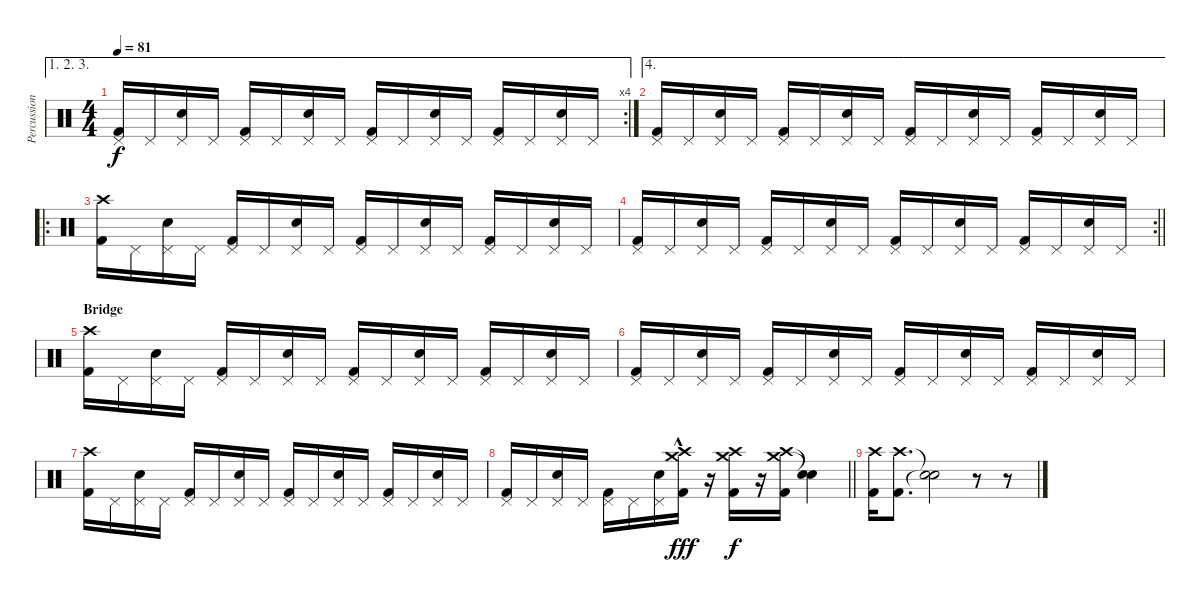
\track ("Percussion" "Percussion") {instrument percussion}
\staff {score}
\articulation defaults
\ae (1 2 3)
\rc 4
\ts (4 4)
\tempo 81
\clef neutral
\ks c
("Pedal Hi-Hat (hit)" "Kick (hit) 2").16{dy f} "Pedal Hi-Hat (hit)".16 ("Pedal Hi-Hat (hit)" "Electric Snare (hit)").16 "Pedal Hi-Hat (hit)".16 ("Pedal Hi-Hat (hit)" "Kick (hit) 2").16 "Pedal Hi-Hat (hit)".16 ("Pedal Hi-Hat (hit)" "Electric Snare (hit)").16 "Pedal Hi-Hat (hit)".16 ("Pedal Hi-Hat (hit)" "Kick (hit) 2").16 "Pedal Hi-Hat (hit)".16 ("Pedal Hi-Hat (hit)" "Electric Snare (hit)").16 "Pedal Hi-Hat (hit)".16 ("Pedal Hi-Hat (hit)" "Kick (hit) 2").16 "Pedal Hi-Hat (hit)".16 ("Pedal Hi-Hat (hit)" "Electric Snare (hit)").16 "Pedal Hi-Hat (hit)".16 |
\ae 4
("Pedal Hi-Hat (hit)" "Kick (hit) 2").16 "Pedal Hi-Hat (hit)".16 ("Pedal Hi-Hat (hit)" "Electric Snare (hit)").16 "Pedal Hi-Hat (hit)".16 ("Pedal Hi-Hat (hit)" "Kick (hit) 2").16 "Pedal Hi-Hat (hit)".16 ("Pedal Hi-Hat (hit)" "Electric Snare (hit)").16 "Pedal Hi-Hat (hit)".16 ("Pedal Hi-Hat (hit)" "Kick (hit) 2").16 "Pedal Hi-Hat (hit)".16 ("Pedal Hi-Hat (hit)" "Electric Snare (hit)").16 "Pedal Hi-Hat (hit)".16 ("Pedal Hi-Hat (hit)" "Kick (hit) 2").16 "Pedal Hi-Hat (hit)".16 ("Pedal Hi-Hat (hit)" "Electric Snare (hit)").16 "Pedal Hi-Hat (hit)".16 |
\ro
("Crash high (hit)" "Kick (hit) 2").16 "Pedal Hi-Hat (hit)".16 ("Pedal Hi-Hat (hit)" "Electric Snare (hit)").16 "Pedal Hi-Hat (hit)".16 ("Pedal Hi-Hat (hit)" "Kick (hit) 2").16 "Pedal Hi-Hat (hit)".16 ("Pedal Hi-Hat (hit)" "Electric Snare (hit)").16 "Pedal Hi-Hat (hit)".16 ("Pedal Hi-Hat (hit)" "Kick (hit) 2").16 "Pedal Hi-Hat (hit)".16 ("Pedal Hi-Hat (hit)" "Electric Snare (hit)").16 "Pedal Hi-Hat (hit)".16 ("Pedal Hi-Hat (hit)" "Kick (hit) 2").16 "Pedal Hi-Hat (hit)".16 ("Pedal Hi-Hat (hit)" "Electric Snare (hit)").16 "Pedal Hi-Hat (hit)".16 |
\rc 2
\barLineRight lightlight
("Pedal Hi-Hat (hit)" "Kick (hit) 2").16 "Pedal Hi-Hat (hit)".16 ("Pedal Hi-Hat (hit)" "Electric Snare (hit)").16 "Pedal Hi-Hat (hit)".16 ("Pedal Hi-Hat (hit)" "Kick (hit) 2").16 "Pedal Hi-Hat (hit)".16 ("Pedal Hi-Hat (hit)" "Electric Snare (hit)").16 "Pedal Hi-Hat (hit)".16 ("Pedal Hi-Hat (hit)" "Kick (hit) 2").16 "Pedal Hi-Hat (hit)".16 ("Pedal Hi-Hat (hit)" "Electric Snare (hit)").16 "Pedal Hi-Hat (hit)".16 ("Pedal Hi-Hat (hit)" "Kick (hit) 2").16 "Pedal Hi-Hat (hit)".16 ("Pedal Hi-Hat (hit)" "Electric Snare (hit)").16 "Pedal Hi-Hat (hit)".16 |
\section ("" "Bridge")
("Crash high (hit)" "Kick (hit) 2").16 "Pedal Hi-Hat (hit)".16 ("Pedal Hi-Hat (hit)" "Electric Snare (hit)").16 "Pedal Hi-Hat (hit)".16 ("Pedal Hi-Hat (hit)" "Kick (hit) 2").16 "Pedal Hi-Hat (hit)".16 ("Pedal Hi-Hat (hit)" "Electric Snare (hit)").16 "Pedal Hi-Hat (hit)".16 ("Pedal Hi-Hat (hit)" "Kick (hit) 2").16 "Pedal Hi-Hat (hit)".16 ("Pedal Hi-Hat (hit)" "Electric Snare (hit)").16 "Pedal Hi-Hat (hit)".16 ("Pedal Hi-Hat (hit)" "Kick (hit) 2").16 "Pedal Hi-Hat (hit)".16 ("Pedal Hi-Hat (hit)" "Electric Snare (hit)").16 "Pedal Hi-Hat (hit)".16 |
("Pedal Hi-Hat (hit)" "Kick (hit) 2").16 "Pedal Hi-Hat (hit)".16 ("Pedal Hi-Hat (hit)" "Electric Snare (hit)").16 "Pedal Hi-Hat (hit)".16 ("Pedal Hi-Hat (hit)" "Kick (hit) 2").16 "Pedal Hi-Hat (hit)".16 ("Pedal Hi-Hat (hit)" "Electric Snare (hit)").16 "Pedal Hi-Hat (hit)".16 ("Pedal Hi-Hat (hit)" "Kick (hit) 2").16 "Pedal Hi-Hat (hit)".16 ("Pedal Hi-Hat (hit)" "Electric Snare (hit)").16 "Pedal Hi-Hat (hit)".16 ("Pedal Hi-Hat (hit)" "Kick (hit) 2").16 "Pedal Hi-Hat (hit)".16 ("Pedal Hi-Hat (hit)" "Electric Snare (hit)").16 "Pedal Hi-Hat (hit)".16 |
("Crash high (hit)" "Kick (hit) 2").16 "Pedal Hi-Hat (hit)".16 ("Pedal Hi-Hat (hit)" "Electric Snare (hit)").16 "Pedal Hi-Hat (hit)".16 ("Pedal Hi-Hat (hit)" "Kick (hit) 2").16 "Pedal Hi-Hat (hit)".16 ("Pedal Hi-Hat (hit)" "Electric Snare (hit)").16 "Pedal Hi-Hat (hit)".16 ("Pedal Hi-Hat (hit)" "Kick (hit) 2").16 "Pedal Hi-Hat (hit)".16 ("Pedal Hi-Hat (hit)" "Electric Snare (hit)").16 "Pedal Hi-Hat (hit)".16 ("Pedal Hi-Hat (hit)" "Kick (hit) 2").16 "Pedal Hi-Hat (hit)".16 ("Pedal Hi-Hat (hit)" "Electric Snare (hit)").16 "Pedal Hi-Hat (hit)".16 |
\barLineRight lightlight
("Pedal Hi-Hat (hit)" "Kick (hit) 2").16 "Pedal Hi-Hat (hit)".16 ("Pedal Hi-Hat (hit)" "Electric Snare (hit)").16 "Pedal Hi-Hat (hit)".16 ("Pedal Hi-Hat (hit)" "Kick (hit) 2").16 "Pedal Hi-Hat (hit)".16 ("Pedal Hi-Hat (hit)" "Electric Snare (hit)").16 ("Crash high (hit)"{hac} "Crash medium (hit)" "Kick (hit) 2").16{dy fff} r.16 ("Crash high (hit)" "Crash medium (hit)" "Kick (hit) 2").16{dy f} r.16 ("Crash high (hit)" "Crash medium (hit)" "Kick (hit) 2").16 ("Snare (hit)"{t} "Snare (hit)"{t}).4 |
("Crash high (hit)" "Kick (hit) 2").16 ("Crash high (hit)" "Kick (hit) 2").8{d} ("Snare (hit)"{t} "Snare (hit)"{t}).2 r.8 r.8
